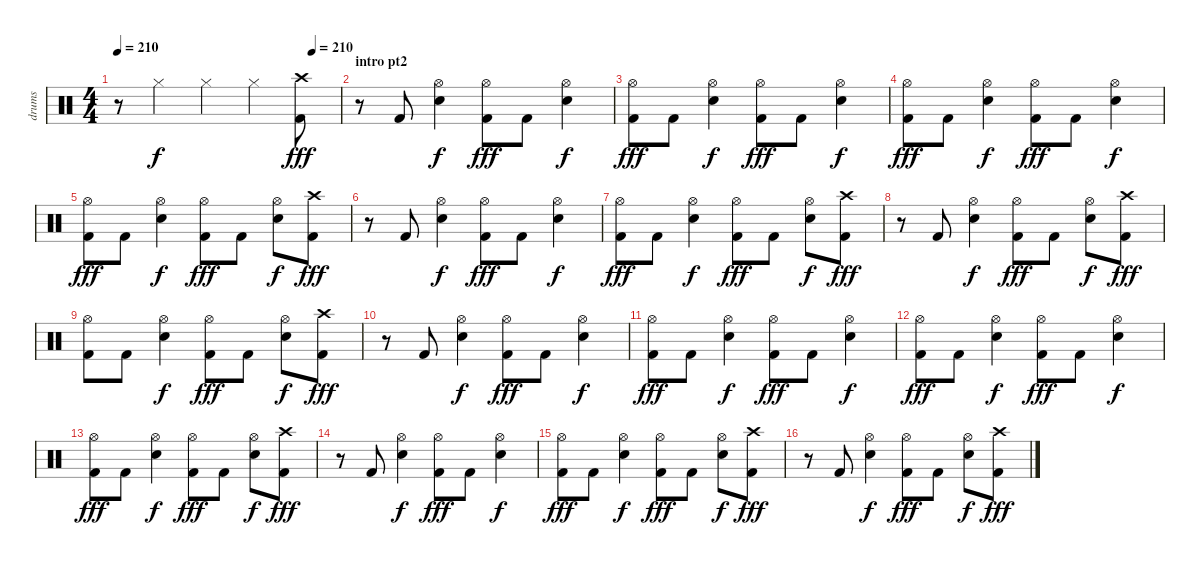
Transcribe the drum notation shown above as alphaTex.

\track ("drums" "drums") {instrument percussion}
\staff {score}
\articulation defaults
\ts (4 4)
\tempo 210
\tempo (210 0.875)
\clef neutral
\ks c
r.8{dy fff} "Hi-Hat (closed)".4{dy f} "Hi-Hat (closed)".4 "Hi-Hat (closed)".4 ("Crash high (hit)" "Kick (hit) 2").8{dy fff} |
\section ("" "intro pt2")
r.8 "Kick (hit) 2".8 ("Hi-Hat (open)" "Snare (hit) 2").4{dy f} ("Hi-Hat (open)" "Kick (hit) 2").8{dy fff} "Kick (hit) 2".8 ("Hi-Hat (open)" "Snare (hit) 2").4{dy f} |
("Hi-Hat (open)" "Kick (hit) 2").8{dy fff} "Kick (hit) 2".8 ("Hi-Hat (open)" "Snare (hit) 2").4{dy f} ("Hi-Hat (open)" "Kick (hit) 2").8{dy fff} "Kick (hit) 2".8 ("Hi-Hat (open)" "Snare (hit) 2").4{dy f} |
("Hi-Hat (open)" "Kick (hit) 2").8{dy fff} "Kick (hit) 2".8 ("Hi-Hat (open)" "Snare (hit) 2").4{dy f} ("Hi-Hat (open)" "Kick (hit) 2").8{dy fff} "Kick (hit) 2".8 ("Hi-Hat (open)" "Snare (hit) 2").4{dy f} |
("Hi-Hat (open)" "Kick (hit) 2").8{dy fff} "Kick (hit) 2".8 ("Hi-Hat (open)" "Snare (hit) 2").4{dy f} ("Hi-Hat (open)" "Kick (hit) 2").8{dy fff} "Kick (hit) 2".8 ("Hi-Hat (open)" "Snare (hit) 2").8{dy f} ("Crash high (hit)" "Kick (hit) 2").8{dy fff} |
r.8 "Kick (hit) 2".8 ("Hi-Hat (open)" "Snare (hit) 2").4{dy f} ("Hi-Hat (open)" "Kick (hit) 2").8{dy fff} "Kick (hit) 2".8 ("Hi-Hat (open)" "Snare (hit) 2").4{dy f} |
("Hi-Hat (open)" "Kick (hit) 2").8{dy fff} "Kick (hit) 2".8 ("Hi-Hat (open)" "Snare (hit) 2").4{dy f} ("Hi-Hat (open)" "Kick (hit) 2").8{dy fff} "Kick (hit) 2".8 ("Hi-Hat (open)" "Snare (hit) 2").8{dy f} ("Crash high (hit)" "Kick (hit) 2").8{dy fff} |
r.8 "Kick (hit) 2".8 ("Hi-Hat (open)" "Snare (hit) 2").4{dy f} ("Hi-Hat (open)" "Kick (hit) 2").8{dy fff} "Kick (hit) 2".8 ("Hi-Hat (open)" "Snare (hit) 2").8{dy f} ("Crash high (hit)" "Kick (hit) 2").8{dy fff} |
("Hi-Hat (open)" "Kick (hit) 2").8 "Kick (hit) 2".8 ("Hi-Hat (open)" "Snare (hit) 2").4{dy f} ("Hi-Hat (open)" "Kick (hit) 2").8{dy fff} "Kick (hit) 2".8 ("Hi-Hat (open)" "Snare (hit) 2").8{dy f} ("Crash high (hit)" "Kick (hit) 2").8{dy fff} |
r.8 "Kick (hit) 2".8 ("Hi-Hat (open)" "Snare (hit) 2").4{dy f} ("Hi-Hat (open)" "Kick (hit) 2").8{dy fff} "Kick (hit) 2".8 ("Hi-Hat (open)" "Snare (hit) 2").4{dy f} |
("Hi-Hat (open)" "Kick (hit) 2").8{dy fff} "Kick (hit) 2".8 ("Hi-Hat (open)" "Snare (hit) 2").4{dy f} ("Hi-Hat (open)" "Kick (hit) 2").8{dy fff} "Kick (hit) 2".8 ("Hi-Hat (open)" "Snare (hit) 2").4{dy f} |
("Hi-Hat (open)" "Kick (hit) 2").8{dy fff} "Kick (hit) 2".8 ("Hi-Hat (open)" "Snare (hit) 2").4{dy f} ("Hi-Hat (open)" "Kick (hit) 2").8{dy fff} "Kick (hit) 2".8 ("Hi-Hat (open)" "Snare (hit) 2").4{dy f} |
("Hi-Hat (open)" "Kick (hit) 2").8{dy fff} "Kick (hit) 2".8 ("Hi-Hat (open)" "Snare (hit) 2").4{dy f} ("Hi-Hat (open)" "Kick (hit) 2").8{dy fff} "Kick (hit) 2".8 ("Hi-Hat (open)" "Snare (hit) 2").8{dy f} ("Crash high (hit)" "Kick (hit) 2").8{dy fff} |
r.8 "Kick (hit) 2".8 ("Hi-Hat (open)" "Snare (hit) 2").4{dy f} ("Hi-Hat (open)" "Kick (hit) 2").8{dy fff} "Kick (hit) 2".8 ("Hi-Hat (open)" "Snare (hit) 2").4{dy f} |
("Hi-Hat (open)" "Kick (hit) 2").8{dy fff} "Kick (hit) 2".8 ("Hi-Hat (open)" "Snare (hit) 2").4{dy f} ("Hi-Hat (open)" "Kick (hit) 2").8{dy fff} "Kick (hit) 2".8 ("Hi-Hat (open)" "Snare (hit) 2").8{dy f} ("Crash high (hit)" "Kick (hit) 2").8{dy fff} |
r.8 "Kick (hit) 2".8 ("Hi-Hat (open)" "Snare (hit) 2").4{dy f} ("Hi-Hat (open)" "Kick (hit) 2").8{dy fff} "Kick (hit) 2".8 ("Hi-Hat (open)" "Snare (hit) 2").8{dy f} ("Crash high (hit)" "Kick (hit) 2").8{dy fff}
